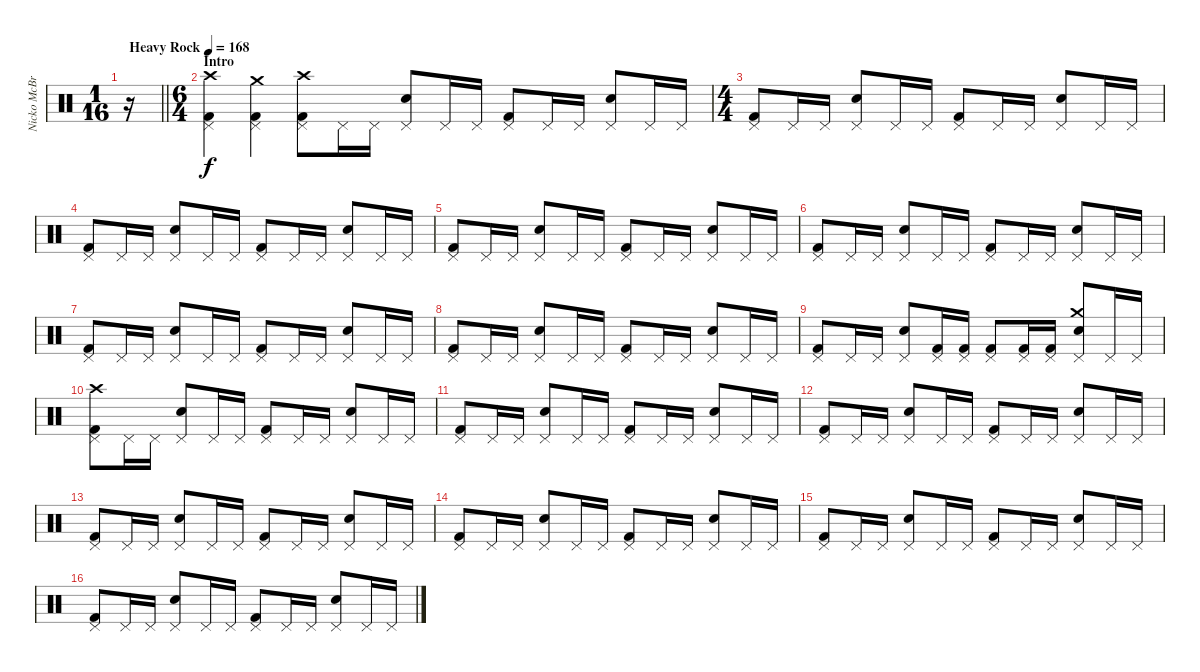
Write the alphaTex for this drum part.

\track ("Nicko McBrain" "Nicko McBr") {instrument percussion}
\staff {score}
\articulation defaults
\ts (1 16)
\tempo (168 "Heavy Rock")
\clef neutral
\barLineRight lightlight
\ks c
r.16{dy f} |
\ts (6 4)
\section ("" "Intro")
("Kick (hit) 2" "Pedal Hi-Hat (hit)" "Crash high (hit)").4 ("Kick (hit) 2" "Pedal Hi-Hat (hit)" "Crash medium (hit)").4 ("Kick (hit) 2" "Pedal Hi-Hat (hit)" "Crash high (hit)").8 "Pedal Hi-Hat (hit)".16 "Pedal Hi-Hat (hit)".16 ("Snare (hit) 2" "Pedal Hi-Hat (hit)").8 "Pedal Hi-Hat (hit)".16 "Pedal Hi-Hat (hit)".16 ("Kick (hit) 2" "Pedal Hi-Hat (hit)").8 "Pedal Hi-Hat (hit)".16 "Pedal Hi-Hat (hit)".16 ("Snare (hit) 2" "Pedal Hi-Hat (hit)").8 "Pedal Hi-Hat (hit)".16 "Pedal Hi-Hat (hit)".16 |
\ts (4 4)
("Kick (hit) 2" "Pedal Hi-Hat (hit)").8 "Pedal Hi-Hat (hit)".16 "Pedal Hi-Hat (hit)".16 ("Snare (hit) 2" "Pedal Hi-Hat (hit)").8 "Pedal Hi-Hat (hit)".16 "Pedal Hi-Hat (hit)".16 ("Kick (hit) 2" "Pedal Hi-Hat (hit)").8 "Pedal Hi-Hat (hit)".16 "Pedal Hi-Hat (hit)".16 ("Snare (hit) 2" "Pedal Hi-Hat (hit)").8 "Pedal Hi-Hat (hit)".16 "Pedal Hi-Hat (hit)".16 |
("Kick (hit) 2" "Pedal Hi-Hat (hit)").8 "Pedal Hi-Hat (hit)".16 "Pedal Hi-Hat (hit)".16 ("Snare (hit) 2" "Pedal Hi-Hat (hit)").8 "Pedal Hi-Hat (hit)".16 "Pedal Hi-Hat (hit)".16 ("Kick (hit) 2" "Pedal Hi-Hat (hit)").8 "Pedal Hi-Hat (hit)".16 "Pedal Hi-Hat (hit)".16 ("Snare (hit) 2" "Pedal Hi-Hat (hit)").8 "Pedal Hi-Hat (hit)".16 "Pedal Hi-Hat (hit)".16 |
("Kick (hit) 2" "Pedal Hi-Hat (hit)").8 "Pedal Hi-Hat (hit)".16 "Pedal Hi-Hat (hit)".16 ("Snare (hit) 2" "Pedal Hi-Hat (hit)").8 "Pedal Hi-Hat (hit)".16 "Pedal Hi-Hat (hit)".16 ("Kick (hit) 2" "Pedal Hi-Hat (hit)").8 "Pedal Hi-Hat (hit)".16 "Pedal Hi-Hat (hit)".16 ("Snare (hit) 2" "Pedal Hi-Hat (hit)").8 "Pedal Hi-Hat (hit)".16 "Pedal Hi-Hat (hit)".16 |
("Kick (hit) 2" "Pedal Hi-Hat (hit)").8 "Pedal Hi-Hat (hit)".16 "Pedal Hi-Hat (hit)".16 ("Snare (hit) 2" "Pedal Hi-Hat (hit)").8 "Pedal Hi-Hat (hit)".16 "Pedal Hi-Hat (hit)".16 ("Kick (hit) 2" "Pedal Hi-Hat (hit)").8 "Pedal Hi-Hat (hit)".16 "Pedal Hi-Hat (hit)".16 ("Snare (hit) 2" "Pedal Hi-Hat (hit)").8 "Pedal Hi-Hat (hit)".16 "Pedal Hi-Hat (hit)".16 |
("Kick (hit) 2" "Pedal Hi-Hat (hit)").8 "Pedal Hi-Hat (hit)".16 "Pedal Hi-Hat (hit)".16 ("Snare (hit) 2" "Pedal Hi-Hat (hit)").8 "Pedal Hi-Hat (hit)".16 "Pedal Hi-Hat (hit)".16 ("Kick (hit) 2" "Pedal Hi-Hat (hit)").8 "Pedal Hi-Hat (hit)".16 "Pedal Hi-Hat (hit)".16 ("Snare (hit) 2" "Pedal Hi-Hat (hit)").8 "Pedal Hi-Hat (hit)".16 "Pedal Hi-Hat (hit)".16 |
("Kick (hit) 2" "Pedal Hi-Hat (hit)").8 "Pedal Hi-Hat (hit)".16 "Pedal Hi-Hat (hit)".16 ("Snare (hit) 2" "Pedal Hi-Hat (hit)").8 "Pedal Hi-Hat (hit)".16 "Pedal Hi-Hat (hit)".16 ("Kick (hit) 2" "Pedal Hi-Hat (hit)").8 "Pedal Hi-Hat (hit)".16 "Pedal Hi-Hat (hit)".16 ("Snare (hit) 2" "Pedal Hi-Hat (hit)").8 "Pedal Hi-Hat (hit)".16 "Pedal Hi-Hat (hit)".16 |
("Kick (hit) 2" "Pedal Hi-Hat (hit)").8 "Pedal Hi-Hat (hit)".16 "Pedal Hi-Hat (hit)".16 ("Snare (hit) 2" "Pedal Hi-Hat (hit)").8 ("Kick (hit) 2" "Pedal Hi-Hat (hit)").16 ("Kick (hit) 2" "Pedal Hi-Hat (hit)").16 ("Kick (hit) 2" "Pedal Hi-Hat (hit)").8 ("Kick (hit) 2" "Pedal Hi-Hat (hit)").16 ("Kick (hit) 2" "Pedal Hi-Hat (hit)").16 ("Snare (hit) 2" "Pedal Hi-Hat (hit)" "Crash medium (hit)").8 "Pedal Hi-Hat (hit)".16 "Pedal Hi-Hat (hit)".16 |
("Kick (hit) 2" "Pedal Hi-Hat (hit)" "Crash high (hit)").8 "Pedal Hi-Hat (hit)".16 "Pedal Hi-Hat (hit)".16 ("Snare (hit) 2" "Pedal Hi-Hat (hit)").8 "Pedal Hi-Hat (hit)".16 "Pedal Hi-Hat (hit)".16 ("Kick (hit) 2" "Pedal Hi-Hat (hit)").8 "Pedal Hi-Hat (hit)".16 "Pedal Hi-Hat (hit)".16 ("Snare (hit) 2" "Pedal Hi-Hat (hit)").8 "Pedal Hi-Hat (hit)".16 "Pedal Hi-Hat (hit)".16 |
("Kick (hit) 2" "Pedal Hi-Hat (hit)").8 "Pedal Hi-Hat (hit)".16 "Pedal Hi-Hat (hit)".16 ("Snare (hit) 2" "Pedal Hi-Hat (hit)").8 "Pedal Hi-Hat (hit)".16 "Pedal Hi-Hat (hit)".16 ("Kick (hit) 2" "Pedal Hi-Hat (hit)").8 "Pedal Hi-Hat (hit)".16 "Pedal Hi-Hat (hit)".16 ("Snare (hit) 2" "Pedal Hi-Hat (hit)").8 "Pedal Hi-Hat (hit)".16 "Pedal Hi-Hat (hit)".16 |
("Kick (hit) 2" "Pedal Hi-Hat (hit)").8 "Pedal Hi-Hat (hit)".16 "Pedal Hi-Hat (hit)".16 ("Snare (hit) 2" "Pedal Hi-Hat (hit)").8 "Pedal Hi-Hat (hit)".16 "Pedal Hi-Hat (hit)".16 ("Kick (hit) 2" "Pedal Hi-Hat (hit)").8 "Pedal Hi-Hat (hit)".16 "Pedal Hi-Hat (hit)".16 ("Snare (hit) 2" "Pedal Hi-Hat (hit)").8 "Pedal Hi-Hat (hit)".16 "Pedal Hi-Hat (hit)".16 |
("Kick (hit) 2" "Pedal Hi-Hat (hit)").8 "Pedal Hi-Hat (hit)".16 "Pedal Hi-Hat (hit)".16 ("Snare (hit) 2" "Pedal Hi-Hat (hit)").8 "Pedal Hi-Hat (hit)".16 "Pedal Hi-Hat (hit)".16 ("Kick (hit) 2" "Pedal Hi-Hat (hit)").8 "Pedal Hi-Hat (hit)".16 "Pedal Hi-Hat (hit)".16 ("Snare (hit) 2" "Pedal Hi-Hat (hit)").8 "Pedal Hi-Hat (hit)".16 "Pedal Hi-Hat (hit)".16 |
("Kick (hit) 2" "Pedal Hi-Hat (hit)").8 "Pedal Hi-Hat (hit)".16 "Pedal Hi-Hat (hit)".16 ("Snare (hit) 2" "Pedal Hi-Hat (hit)").8 "Pedal Hi-Hat (hit)".16 "Pedal Hi-Hat (hit)".16 ("Kick (hit) 2" "Pedal Hi-Hat (hit)").8 "Pedal Hi-Hat (hit)".16 "Pedal Hi-Hat (hit)".16 ("Snare (hit) 2" "Pedal Hi-Hat (hit)").8 "Pedal Hi-Hat (hit)".16 "Pedal Hi-Hat (hit)".16 |
("Kick (hit) 2" "Pedal Hi-Hat (hit)").8 "Pedal Hi-Hat (hit)".16 "Pedal Hi-Hat (hit)".16 ("Snare (hit) 2" "Pedal Hi-Hat (hit)").8 "Pedal Hi-Hat (hit)".16 "Pedal Hi-Hat (hit)".16 ("Kick (hit) 2" "Pedal Hi-Hat (hit)").8 "Pedal Hi-Hat (hit)".16 "Pedal Hi-Hat (hit)".16 ("Snare (hit) 2" "Pedal Hi-Hat (hit)").8 "Pedal Hi-Hat (hit)".16 "Pedal Hi-Hat (hit)".16 |
("Kick (hit) 2" "Pedal Hi-Hat (hit)").8 "Pedal Hi-Hat (hit)".16 "Pedal Hi-Hat (hit)".16 ("Snare (hit) 2" "Pedal Hi-Hat (hit)").8 "Pedal Hi-Hat (hit)".16 "Pedal Hi-Hat (hit)".16 ("Kick (hit) 2" "Pedal Hi-Hat (hit)").8 "Pedal Hi-Hat (hit)".16 "Pedal Hi-Hat (hit)".16 ("Snare (hit) 2" "Pedal Hi-Hat (hit)").8 "Pedal Hi-Hat (hit)".16 "Pedal Hi-Hat (hit)".16
